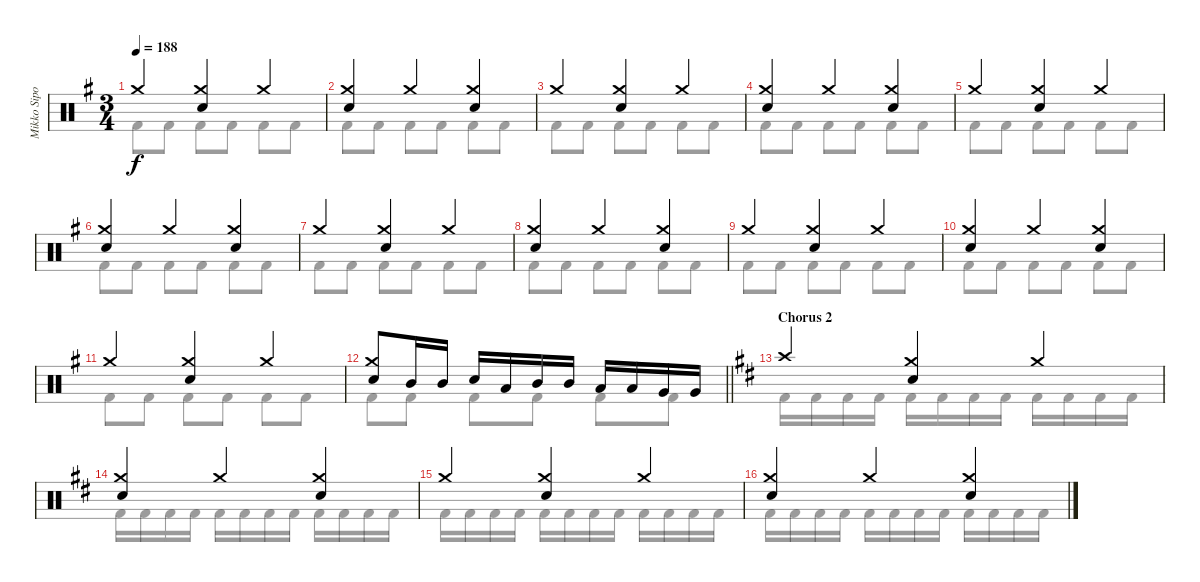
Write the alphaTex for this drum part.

\track ("Mikko Sipola (drums)" "Mikko Sipo") {instrument percussion}
\staff {score}
\articulation defaults
\voice
\ts (3 4)
\tempo 188
\clef neutral
\ks eminor "Crash medium (hit)".4{dy f}
("Crash medium (hit)" "Electric Snare (hit)").4 "Crash medium (hit)".4 |
("Crash medium (hit)" "Electric Snare (hit)").4 "Crash medium (hit)".4 ("Crash medium (hit)" "Electric Snare (hit)").4 |
"Crash medium (hit)".4 ("Crash medium (hit)" "Electric Snare (hit)").4 "Crash medium (hit)".4 |
("Crash medium (hit)" "Electric Snare (hit)").4 "Crash medium (hit)".4 ("Crash medium (hit)" "Electric Snare (hit)").4 |
"Crash medium (hit)".4 ("Crash medium (hit)" "Electric Snare (hit)").4 "Crash medium (hit)".4 |
("Crash medium (hit)" "Electric Snare (hit)").4 "Crash medium (hit)".4 ("Crash medium (hit)" "Electric Snare (hit)").4 |
"Crash medium (hit)".4 ("Crash medium (hit)" "Electric Snare (hit)").4 "Crash medium (hit)".4 |
("Crash medium (hit)" "Electric Snare (hit)").4 "Crash medium (hit)".4 ("Crash medium (hit)" "Electric Snare (hit)").4 |
"Crash medium (hit)".4 ("Crash medium (hit)" "Electric Snare (hit)").4 "Crash medium (hit)".4 |
("Crash medium (hit)" "Electric Snare (hit)").4 "Crash medium (hit)".4 ("Crash medium (hit)" "Electric Snare (hit)").4 |
"Crash medium (hit)".4 ("Crash medium (hit)" "Electric Snare (hit)").4 "Crash medium (hit)".4 |
\barLineRight lightlight
("Crash medium (hit)" "Electric Snare (hit)").8 "Mid Tom (hit)".16 "Mid Tom (hit)".16 "Electric Snare (hit)".16 "Low Tom (hit)".16 "Mid Tom (hit)".16 "Mid Tom (hit)".16 "Low Tom (hit)".16 "Low Tom (hit)".16 "Very Low Tom (hit)".16 "Very Low Tom (hit)".16 |
\section ("" "Chorus 2")
\ks bminor "Crash high (hit)".4
("Crash medium (hit)" "Electric Snare (hit)").4 "Crash medium (hit)".4 |
("Crash medium (hit)" "Electric Snare (hit)").4 "Crash medium (hit)".4 ("Crash medium (hit)" "Electric Snare (hit)").4 |
"Crash medium (hit)".4 ("Crash medium (hit)" "Electric Snare (hit)").4 "Crash medium (hit)".4 |
("Crash medium (hit)" "Electric Snare (hit)").4 "Crash medium (hit)".4 ("Crash medium (hit)" "Electric Snare (hit)").4
\voice
\clef neutral
\ottava regular
\simile none
\ks eminor "Kick (hit) 2".8{dy f} "Kick (hit) 2".8 "Kick (hit) 2".8 "Kick (hit) 2".8 "Kick (hit) 2".8 "Kick (hit) 2".8
|
"Kick (hit) 2".8 "Kick (hit) 2".8 "Kick (hit) 2".8 "Kick (hit) 2".8 "Kick (hit) 2".8 "Kick (hit) 2".8 |
"Kick (hit) 2".8 "Kick (hit) 2".8 "Kick (hit) 2".8 "Kick (hit) 2".8 "Kick (hit) 2".8 "Kick (hit) 2".8 |
"Kick (hit) 2".8 "Kick (hit) 2".8 "Kick (hit) 2".8 "Kick (hit) 2".8 "Kick (hit) 2".8 "Kick (hit) 2".8 |
"Kick (hit) 2".8 "Kick (hit) 2".8 "Kick (hit) 2".8 "Kick (hit) 2".8 "Kick (hit) 2".8 "Kick (hit) 2".8 |
"Kick (hit) 2".8 "Kick (hit) 2".8 "Kick (hit) 2".8 "Kick (hit) 2".8 "Kick (hit) 2".8 "Kick (hit) 2".8 |
"Kick (hit) 2".8 "Kick (hit) 2".8 "Kick (hit) 2".8 "Kick (hit) 2".8 "Kick (hit) 2".8 "Kick (hit) 2".8 |
"Kick (hit) 2".8 "Kick (hit) 2".8 "Kick (hit) 2".8 "Kick (hit) 2".8 "Kick (hit) 2".8 "Kick (hit) 2".8 |
"Kick (hit) 2".8 "Kick (hit) 2".8 "Kick (hit) 2".8 "Kick (hit) 2".8 "Kick (hit) 2".8 "Kick (hit) 2".8 |
"Kick (hit) 2".8 "Kick (hit) 2".8 "Kick (hit) 2".8 "Kick (hit) 2".8 "Kick (hit) 2".8 "Kick (hit) 2".8 |
"Kick (hit) 2".8 "Kick (hit) 2".8 "Kick (hit) 2".8 "Kick (hit) 2".8 "Kick (hit) 2".8 "Kick (hit) 2".8 |
\barLineRight lightlight "Kick (hit) 2".8 "Kick (hit) 2".8 "Kick (hit) 2".8 "Kick (hit) 2".8 "Kick (hit) 2".8 "Kick (hit) 2".8
|
\ks bminor "Kick (hit) 2".16 "Kick (hit) 2".16 "Kick (hit) 2".16 "Kick (hit) 2".16 "Kick (hit) 2".16 "Kick (hit) 2".16 "Kick (hit) 2".16 "Kick (hit) 2".16 "Kick (hit) 2".16 "Kick (hit) 2".16 "Kick (hit) 2".16 "Kick (hit) 2".16
|
"Kick (hit) 2".16 "Kick (hit) 2".16 "Kick (hit) 2".16 "Kick (hit) 2".16 "Kick (hit) 2".16 "Kick (hit) 2".16 "Kick (hit) 2".16 "Kick (hit) 2".16 "Kick (hit) 2".16 "Kick (hit) 2".16 "Kick (hit) 2".16 "Kick (hit) 2".16 |
"Kick (hit) 2".16 "Kick (hit) 2".16 "Kick (hit) 2".16 "Kick (hit) 2".16 "Kick (hit) 2".16 "Kick (hit) 2".16 "Kick (hit) 2".16 "Kick (hit) 2".16 "Kick (hit) 2".16 "Kick (hit) 2".16 "Kick (hit) 2".16 "Kick (hit) 2".16 |
"Kick (hit) 2".16 "Kick (hit) 2".16 "Kick (hit) 2".16 "Kick (hit) 2".16 "Kick (hit) 2".16 "Kick (hit) 2".16 "Kick (hit) 2".16 "Kick (hit) 2".16 "Kick (hit) 2".16 "Kick (hit) 2".16 "Kick (hit) 2".16 "Kick (hit) 2".16
